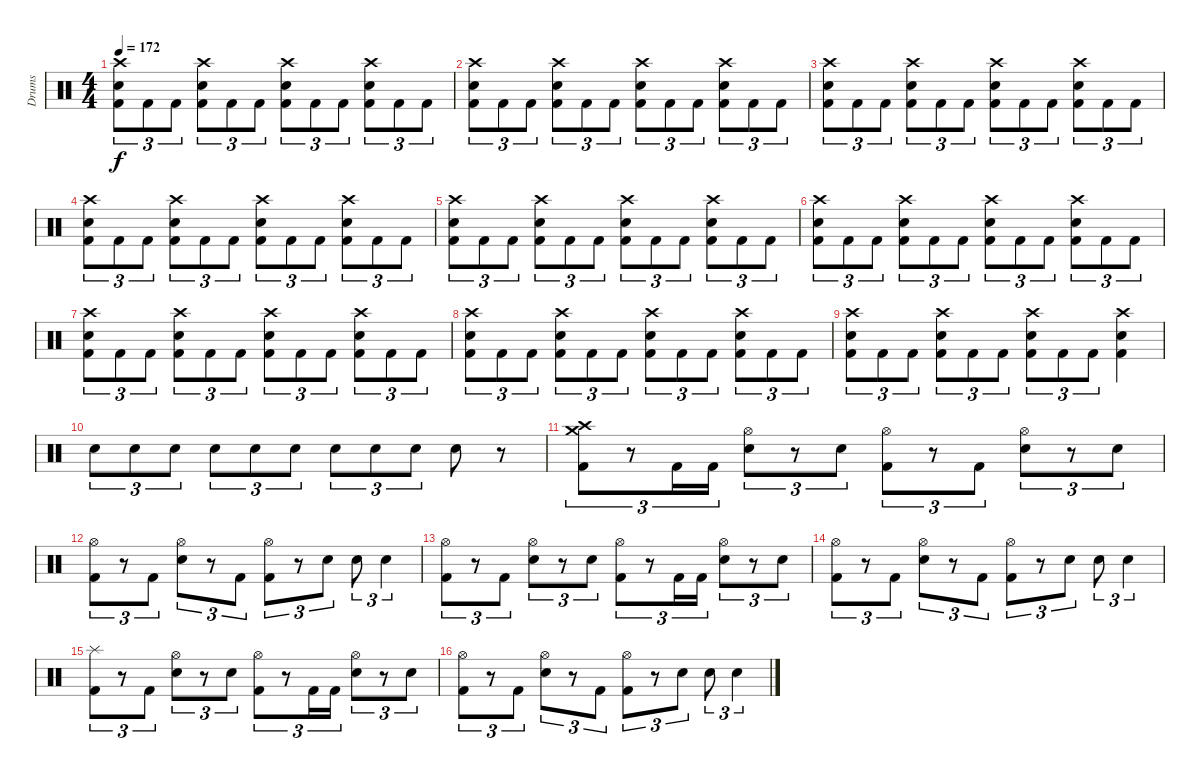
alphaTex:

\track ("Drums" "Drums") {instrument percussion}
\staff {score}
\articulation defaults
\ts (4 4)
\tempo 172
\clef neutral
\ks c
("Crash high (hit)" "Snare (hit) 2" "Kick (hit) 2").8{tu (3 2) dy f} "Kick (hit) 2".8{tu (3 2)} "Kick (hit) 2".8{tu (3 2)} ("Crash high (hit)" "Snare (hit) 2" "Kick (hit) 2").8{tu (3 2)} "Kick (hit) 2".8{tu (3 2)} "Kick (hit) 2".8{tu (3 2)} ("Crash high (hit)" "Snare (hit) 2" "Kick (hit) 2").8{tu (3 2)} "Kick (hit) 2".8{tu (3 2)} "Kick (hit) 2".8{tu (3 2)} ("Crash high (hit)" "Snare (hit) 2" "Kick (hit) 2").8{tu (3 2)} "Kick (hit) 2".8{tu (3 2)} "Kick (hit) 2".8{tu (3 2)} |
("Crash high (hit)" "Snare (hit) 2" "Kick (hit) 2").8{tu (3 2)} "Kick (hit) 2".8{tu (3 2)} "Kick (hit) 2".8{tu (3 2)} ("Crash high (hit)" "Snare (hit) 2" "Kick (hit) 2").8{tu (3 2)} "Kick (hit) 2".8{tu (3 2)} "Kick (hit) 2".8{tu (3 2)} ("Crash high (hit)" "Snare (hit) 2" "Kick (hit) 2").8{tu (3 2)} "Kick (hit) 2".8{tu (3 2)} "Kick (hit) 2".8{tu (3 2)} ("Crash high (hit)" "Snare (hit) 2" "Kick (hit) 2").8{tu (3 2)} "Kick (hit) 2".8{tu (3 2)} "Kick (hit) 2".8{tu (3 2)} |
("Crash high (hit)" "Snare (hit) 2" "Kick (hit) 2").8{tu (3 2)} "Kick (hit) 2".8{tu (3 2)} "Kick (hit) 2".8{tu (3 2)} ("Crash high (hit)" "Snare (hit) 2" "Kick (hit) 2").8{tu (3 2)} "Kick (hit) 2".8{tu (3 2)} "Kick (hit) 2".8{tu (3 2)} ("Crash high (hit)" "Snare (hit) 2" "Kick (hit) 2").8{tu (3 2)} "Kick (hit) 2".8{tu (3 2)} "Kick (hit) 2".8{tu (3 2)} ("Crash high (hit)" "Snare (hit) 2" "Kick (hit) 2").8{tu (3 2)} "Kick (hit) 2".8{tu (3 2)} "Kick (hit) 2".8{tu (3 2)} |
("Crash high (hit)" "Snare (hit) 2" "Kick (hit) 2").8{tu (3 2)} "Kick (hit) 2".8{tu (3 2)} "Kick (hit) 2".8{tu (3 2)} ("Crash high (hit)" "Snare (hit) 2" "Kick (hit) 2").8{tu (3 2)} "Kick (hit) 2".8{tu (3 2)} "Kick (hit) 2".8{tu (3 2)} ("Crash high (hit)" "Snare (hit) 2" "Kick (hit) 2").8{tu (3 2)} "Kick (hit) 2".8{tu (3 2)} "Kick (hit) 2".8{tu (3 2)} ("Crash high (hit)" "Snare (hit) 2" "Kick (hit) 2").8{tu (3 2)} "Kick (hit) 2".8{tu (3 2)} "Kick (hit) 2".8{tu (3 2)} |
("Crash high (hit)" "Snare (hit) 2" "Kick (hit) 2").8{tu (3 2)} "Kick (hit) 2".8{tu (3 2)} "Kick (hit) 2".8{tu (3 2)} ("Crash high (hit)" "Snare (hit) 2" "Kick (hit) 2").8{tu (3 2)} "Kick (hit) 2".8{tu (3 2)} "Kick (hit) 2".8{tu (3 2)} ("Crash high (hit)" "Snare (hit) 2" "Kick (hit) 2").8{tu (3 2)} "Kick (hit) 2".8{tu (3 2)} "Kick (hit) 2".8{tu (3 2)} ("Crash high (hit)" "Snare (hit) 2" "Kick (hit) 2").8{tu (3 2)} "Kick (hit) 2".8{tu (3 2)} "Kick (hit) 2".8{tu (3 2)} |
("Crash high (hit)" "Snare (hit) 2" "Kick (hit) 2").8{tu (3 2)} "Kick (hit) 2".8{tu (3 2)} "Kick (hit) 2".8{tu (3 2)} ("Crash high (hit)" "Snare (hit) 2" "Kick (hit) 2").8{tu (3 2)} "Kick (hit) 2".8{tu (3 2)} "Kick (hit) 2".8{tu (3 2)} ("Crash high (hit)" "Snare (hit) 2" "Kick (hit) 2").8{tu (3 2)} "Kick (hit) 2".8{tu (3 2)} "Kick (hit) 2".8{tu (3 2)} ("Crash high (hit)" "Snare (hit) 2" "Kick (hit) 2").8{tu (3 2)} "Kick (hit) 2".8{tu (3 2)} "Kick (hit) 2".8{tu (3 2)} |
("Crash high (hit)" "Snare (hit) 2" "Kick (hit) 2").8{tu (3 2)} "Kick (hit) 2".8{tu (3 2)} "Kick (hit) 2".8{tu (3 2)} ("Crash high (hit)" "Snare (hit) 2" "Kick (hit) 2").8{tu (3 2)} "Kick (hit) 2".8{tu (3 2)} "Kick (hit) 2".8{tu (3 2)} ("Crash high (hit)" "Snare (hit) 2" "Kick (hit) 2").8{tu (3 2)} "Kick (hit) 2".8{tu (3 2)} "Kick (hit) 2".8{tu (3 2)} ("Crash high (hit)" "Snare (hit) 2" "Kick (hit) 2").8{tu (3 2)} "Kick (hit) 2".8{tu (3 2)} "Kick (hit) 2".8{tu (3 2)} |
("Crash high (hit)" "Snare (hit) 2" "Kick (hit) 2").8{tu (3 2)} "Kick (hit) 2".8{tu (3 2)} "Kick (hit) 2".8{tu (3 2)} ("Crash high (hit)" "Snare (hit) 2" "Kick (hit) 2").8{tu (3 2)} "Kick (hit) 2".8{tu (3 2)} "Kick (hit) 2".8{tu (3 2)} ("Crash high (hit)" "Snare (hit) 2" "Kick (hit) 2").8{tu (3 2)} "Kick (hit) 2".8{tu (3 2)} "Kick (hit) 2".8{tu (3 2)} ("Crash high (hit)" "Snare (hit) 2" "Kick (hit) 2").8{tu (3 2)} "Kick (hit) 2".8{tu (3 2)} "Kick (hit) 2".8{tu (3 2)} |
("Crash high (hit)" "Snare (hit) 2" "Kick (hit) 2").8{tu (3 2)} "Kick (hit) 2".8{tu (3 2)} "Kick (hit) 2".8{tu (3 2)} ("Crash high (hit)" "Snare (hit) 2" "Kick (hit) 2").8{tu (3 2)} "Kick (hit) 2".8{tu (3 2)} "Kick (hit) 2".8{tu (3 2)} ("Crash high (hit)" "Snare (hit) 2" "Kick (hit) 2").8{tu (3 2)} "Kick (hit) 2".8{tu (3 2)} "Kick (hit) 2".8{tu (3 2)} ("Crash high (hit)" "Snare (hit) 2" "Kick (hit) 2").4 |
"Snare (hit) 2".8{tu (3 2)} "Snare (hit) 2".8{tu (3 2)} "Snare (hit) 2".8{tu (3 2)} "Snare (hit) 2".8{tu (3 2)} "Snare (hit) 2".8{tu (3 2)} "Snare (hit) 2".8{tu (3 2)} "Snare (hit) 2".8{tu (3 2)} "Snare (hit) 2".8{tu (3 2)} "Snare (hit) 2".8{tu (3 2)} "Snare (hit) 2".8 r.8 |
("Crash medium (hit)" "Crash high (hit)" "Kick (hit) 2").8{tu (3 2)} r.8{tu (3 2)} "Kick (hit) 2".16{tu (3 2)} "Kick (hit) 2".16{tu (3 2)} ("Hi-Hat (open)" "Snare (hit) 2").8{tu (3 2)} r.8{tu (3 2)} "Snare (hit) 2".8{tu (3 2)} ("Hi-Hat (open)" "Kick (hit) 2").8{tu (3 2)} r.8{tu (3 2)} "Kick (hit) 2".8{tu (3 2)} ("Hi-Hat (open)" "Snare (hit) 2").8{tu (3 2)} r.8{tu (3 2)} "Snare (hit) 2".8{tu (3 2)} |
("Hi-Hat (open)" "Kick (hit) 2").8{tu (3 2)} r.8{tu (3 2)} "Kick (hit) 2".8{tu (3 2)} ("Hi-Hat (open)" "Snare (hit) 2").8{tu (3 2)} r.8{tu (3 2)} "Kick (hit) 2".8{tu (3 2)} ("Hi-Hat (open)" "Kick (hit) 2").8{tu (3 2)} r.8{tu (3 2)} "Snare (hit) 2".8{tu (3 2)} "Snare (hit) 2".8{tu (3 2)} "Snare (hit) 2".4{tu (3 2)} |
("Hi-Hat (open)" "Kick (hit) 2").8{tu (3 2)} r.8{tu (3 2)} "Kick (hit) 2".8{tu (3 2)} ("Hi-Hat (open)" "Snare (hit) 2").8{tu (3 2)} r.8{tu (3 2)} "Snare (hit) 2".8{tu (3 2)} ("Hi-Hat (open)" "Kick (hit) 2").8{tu (3 2)} r.8{tu (3 2)} "Kick (hit) 2".16{tu (3 2)} "Kick (hit) 2".16{tu (3 2)} ("Hi-Hat (open)" "Snare (hit) 2").8{tu (3 2)} r.8{tu (3 2)} "Snare (hit) 2".8{tu (3 2)} |
("Hi-Hat (open)" "Kick (hit) 2").8{tu (3 2)} r.8{tu (3 2)} "Kick (hit) 2".8{tu (3 2)} ("Hi-Hat (open)" "Snare (hit) 2").8{tu (3 2)} r.8{tu (3 2)} "Kick (hit) 2".8{tu (3 2)} ("Hi-Hat (open)" "Kick (hit) 2").8{tu (3 2)} r.8{tu (3 2)} "Snare (hit) 2".8{tu (3 2)} "Snare (hit) 2".8{tu (3 2)} "Snare (hit) 2".4{tu (3 2)} |
("Splash (hit)" "Kick (hit) 2").8{tu (3 2)} r.8{tu (3 2)} "Kick (hit) 2".8{tu (3 2)} ("Hi-Hat (open)" "Snare (hit) 2").8{tu (3 2)} r.8{tu (3 2)} "Snare (hit) 2".8{tu (3 2)} ("Hi-Hat (open)" "Kick (hit) 2").8{tu (3 2)} r.8{tu (3 2)} "Kick (hit) 2".16{tu (3 2)} "Kick (hit) 2".16{tu (3 2)} ("Hi-Hat (open)" "Snare (hit) 2").8{tu (3 2)} r.8{tu (3 2)} "Snare (hit) 2".8{tu (3 2)} |
("Hi-Hat (open)" "Kick (hit) 2").8{tu (3 2)} r.8{tu (3 2)} "Kick (hit) 2".8{tu (3 2)} ("Hi-Hat (open)" "Snare (hit) 2").8{tu (3 2)} r.8{tu (3 2)} "Kick (hit) 2".8{tu (3 2)} ("Hi-Hat (open)" "Kick (hit) 2").8{tu (3 2)} r.8{tu (3 2)} "Snare (hit) 2".8{tu (3 2)} "Snare (hit) 2".8{tu (3 2)} "Snare (hit) 2".4{tu (3 2)}
